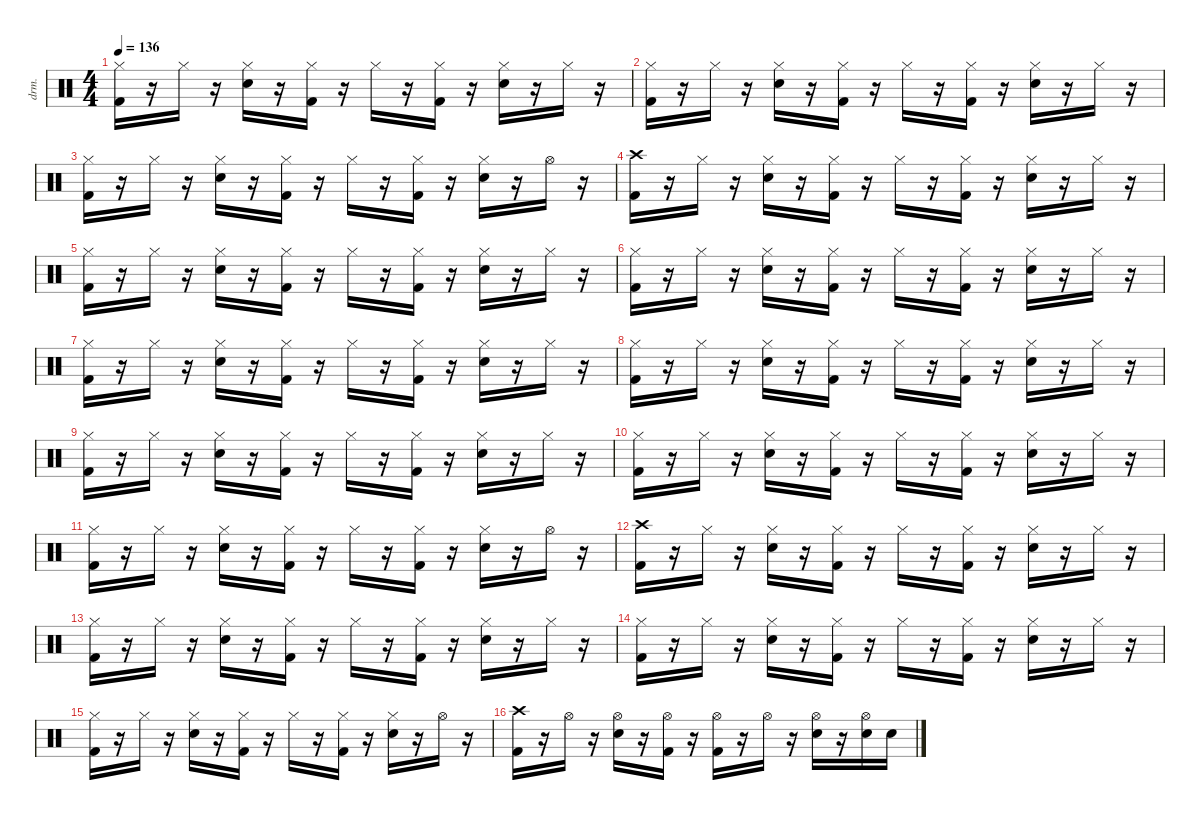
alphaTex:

\defaultSystemsLayout 4
\hideDynamics
\bracketExtendMode nobrackets
\otherSystemsTrackNameOrientation horizontal
\track ("Drums" "drm.") {instrument percussion}
\staff {score}
\articulation defaults
\ts (4 4)
\tempo 136
\clef neutral
\ks c
("Kick (hit) 2" "Hi-Hat (closed)").16{dy f} r.16 "Hi-Hat (closed)".16 r.16 ("Snare (hit) 2" "Hi-Hat (closed)").16 r.16 ("Kick (hit) 2" "Hi-Hat (closed)").16 r.16 "Hi-Hat (closed)".16 r.16 ("Kick (hit) 2" "Hi-Hat (closed)").16 r.16 ("Snare (hit) 2" "Hi-Hat (closed)").16 r.16 "Hi-Hat (closed)".16 r.16 |
("Kick (hit) 2" "Hi-Hat (closed)").16 r.16 "Hi-Hat (closed)".16 r.16 ("Snare (hit) 2" "Hi-Hat (closed)").16 r.16 ("Kick (hit) 2" "Hi-Hat (closed)").16 r.16 "Hi-Hat (closed)".16 r.16 ("Kick (hit) 2" "Hi-Hat (closed)").16 r.16 ("Snare (hit) 2" "Hi-Hat (closed)").16 r.16 "Hi-Hat (closed)".16 r.16 |
("Kick (hit) 2" "Hi-Hat (closed)").16 r.16 "Hi-Hat (closed)".16 r.16 ("Snare (hit) 2" "Hi-Hat (closed)").16 r.16 ("Kick (hit) 2" "Hi-Hat (closed)").16 r.16 "Hi-Hat (closed)".16 r.16 ("Kick (hit) 2" "Hi-Hat (closed)").16 r.16 ("Snare (hit) 2" "Hi-Hat (closed)").16 r.16 "Hi-Hat (open)".16 r.16 |
("Kick (hit) 2" "Crash high (hit)").16 r.16 "Hi-Hat (closed)".16 r.16 ("Snare (hit) 2" "Hi-Hat (closed)").16 r.16 ("Kick (hit) 2" "Hi-Hat (closed)").16 r.16 "Hi-Hat (closed)".16 r.16 ("Kick (hit) 2" "Hi-Hat (closed)").16 r.16 ("Snare (hit) 2" "Hi-Hat (closed)").16 r.16 "Hi-Hat (closed)".16 r.16 |
("Kick (hit) 2" "Hi-Hat (closed)").16 r.16 "Hi-Hat (closed)".16 r.16 ("Snare (hit) 2" "Hi-Hat (closed)").16 r.16 ("Kick (hit) 2" "Hi-Hat (closed)").16 r.16 "Hi-Hat (closed)".16 r.16 ("Kick (hit) 2" "Hi-Hat (closed)").16 r.16 ("Snare (hit) 2" "Hi-Hat (closed)").16 r.16 "Hi-Hat (closed)".16 r.16 |
("Kick (hit) 2" "Hi-Hat (closed)").16 r.16 "Hi-Hat (closed)".16 r.16 ("Snare (hit) 2" "Hi-Hat (closed)").16 r.16 ("Kick (hit) 2" "Hi-Hat (closed)").16 r.16 "Hi-Hat (closed)".16 r.16 ("Kick (hit) 2" "Hi-Hat (closed)").16 r.16 ("Snare (hit) 2" "Hi-Hat (closed)").16 r.16 "Hi-Hat (closed)".16 r.16 |
("Kick (hit) 2" "Hi-Hat (closed)").16 r.16 "Hi-Hat (closed)".16 r.16 ("Snare (hit) 2" "Hi-Hat (closed)").16 r.16 ("Kick (hit) 2" "Hi-Hat (closed)").16 r.16 "Hi-Hat (closed)".16 r.16 ("Kick (hit) 2" "Hi-Hat (closed)").16 r.16 ("Snare (hit) 2" "Hi-Hat (closed)").16 r.16 "Hi-Hat (closed)".16 r.16 |
("Kick (hit) 2" "Hi-Hat (closed)").16 r.16 "Hi-Hat (closed)".16 r.16 ("Snare (hit) 2" "Hi-Hat (closed)").16 r.16 ("Kick (hit) 2" "Hi-Hat (closed)").16 r.16 "Hi-Hat (closed)".16 r.16 ("Kick (hit) 2" "Hi-Hat (closed)").16 r.16 ("Snare (hit) 2" "Hi-Hat (closed)").16 r.16 "Hi-Hat (closed)".16 r.16 |
("Kick (hit) 2" "Hi-Hat (closed)").16 r.16 "Hi-Hat (closed)".16 r.16 ("Snare (hit) 2" "Hi-Hat (closed)").16 r.16 ("Kick (hit) 2" "Hi-Hat (closed)").16 r.16 "Hi-Hat (closed)".16 r.16 ("Kick (hit) 2" "Hi-Hat (closed)").16 r.16 ("Snare (hit) 2" "Hi-Hat (closed)").16 r.16 "Hi-Hat (closed)".16 r.16 |
("Kick (hit) 2" "Hi-Hat (closed)").16 r.16 "Hi-Hat (closed)".16 r.16 ("Snare (hit) 2" "Hi-Hat (closed)").16 r.16 ("Kick (hit) 2" "Hi-Hat (closed)").16 r.16 "Hi-Hat (closed)".16 r.16 ("Kick (hit) 2" "Hi-Hat (closed)").16 r.16 ("Snare (hit) 2" "Hi-Hat (closed)").16 r.16 "Hi-Hat (closed)".16 r.16 |
("Kick (hit) 2" "Hi-Hat (closed)").16 r.16 "Hi-Hat (closed)".16 r.16 ("Snare (hit) 2" "Hi-Hat (closed)").16 r.16 ("Kick (hit) 2" "Hi-Hat (closed)").16 r.16 "Hi-Hat (closed)".16 r.16 ("Kick (hit) 2" "Hi-Hat (closed)").16 r.16 ("Snare (hit) 2" "Hi-Hat (closed)").16 r.16 "Hi-Hat (open)".16 r.16 |
("Kick (hit) 2" "Crash high (hit)").16 r.16 "Hi-Hat (closed)".16 r.16 ("Snare (hit) 2" "Hi-Hat (closed)").16 r.16 ("Kick (hit) 2" "Hi-Hat (closed)").16 r.16 "Hi-Hat (closed)".16 r.16 ("Kick (hit) 2" "Hi-Hat (closed)").16 r.16 ("Snare (hit) 2" "Hi-Hat (closed)").16 r.16 "Hi-Hat (closed)".16 r.16 |
("Kick (hit) 2" "Hi-Hat (closed)").16 r.16 "Hi-Hat (closed)".16 r.16 ("Snare (hit) 2" "Hi-Hat (closed)").16 r.16 ("Kick (hit) 2" "Hi-Hat (closed)").16 r.16 "Hi-Hat (closed)".16 r.16 ("Kick (hit) 2" "Hi-Hat (closed)").16 r.16 ("Snare (hit) 2" "Hi-Hat (closed)").16 r.16 "Hi-Hat (closed)".16 r.16 |
("Kick (hit) 2" "Hi-Hat (closed)").16 r.16 "Hi-Hat (closed)".16 r.16 ("Snare (hit) 2" "Hi-Hat (closed)").16 r.16 ("Kick (hit) 2" "Hi-Hat (closed)").16 r.16 "Hi-Hat (closed)".16 r.16 ("Kick (hit) 2" "Hi-Hat (closed)").16 r.16 ("Snare (hit) 2" "Hi-Hat (closed)").16 r.16 "Hi-Hat (closed)".16 r.16 |
("Kick (hit) 2" "Hi-Hat (closed)").16 r.16 "Hi-Hat (closed)".16 r.16 ("Snare (hit) 2" "Hi-Hat (closed)").16 r.16 ("Kick (hit) 2" "Hi-Hat (closed)").16 r.16 "Hi-Hat (closed)".16 r.16 ("Kick (hit) 2" "Hi-Hat (closed)").16 r.16 ("Snare (hit) 2" "Hi-Hat (closed)").16 r.16 "Hi-Hat (open)".16 r.16 |
("Kick (hit) 2" "Crash high (hit)").16 r.16 "Hi-Hat (open)".16 r.16 ("Snare (hit) 2" "Hi-Hat (open)").16 r.16 ("Kick (hit) 2" "Hi-Hat (open)").16 r.16 ("Kick (hit) 2" "Hi-Hat (open)").16 r.16 "Hi-Hat (open)".16 r.16 ("Snare (hit) 2" "Hi-Hat (open)").16 r.16 ("Snare (hit) 2" "Hi-Hat (open)").16 "Snare (hit) 2".16
